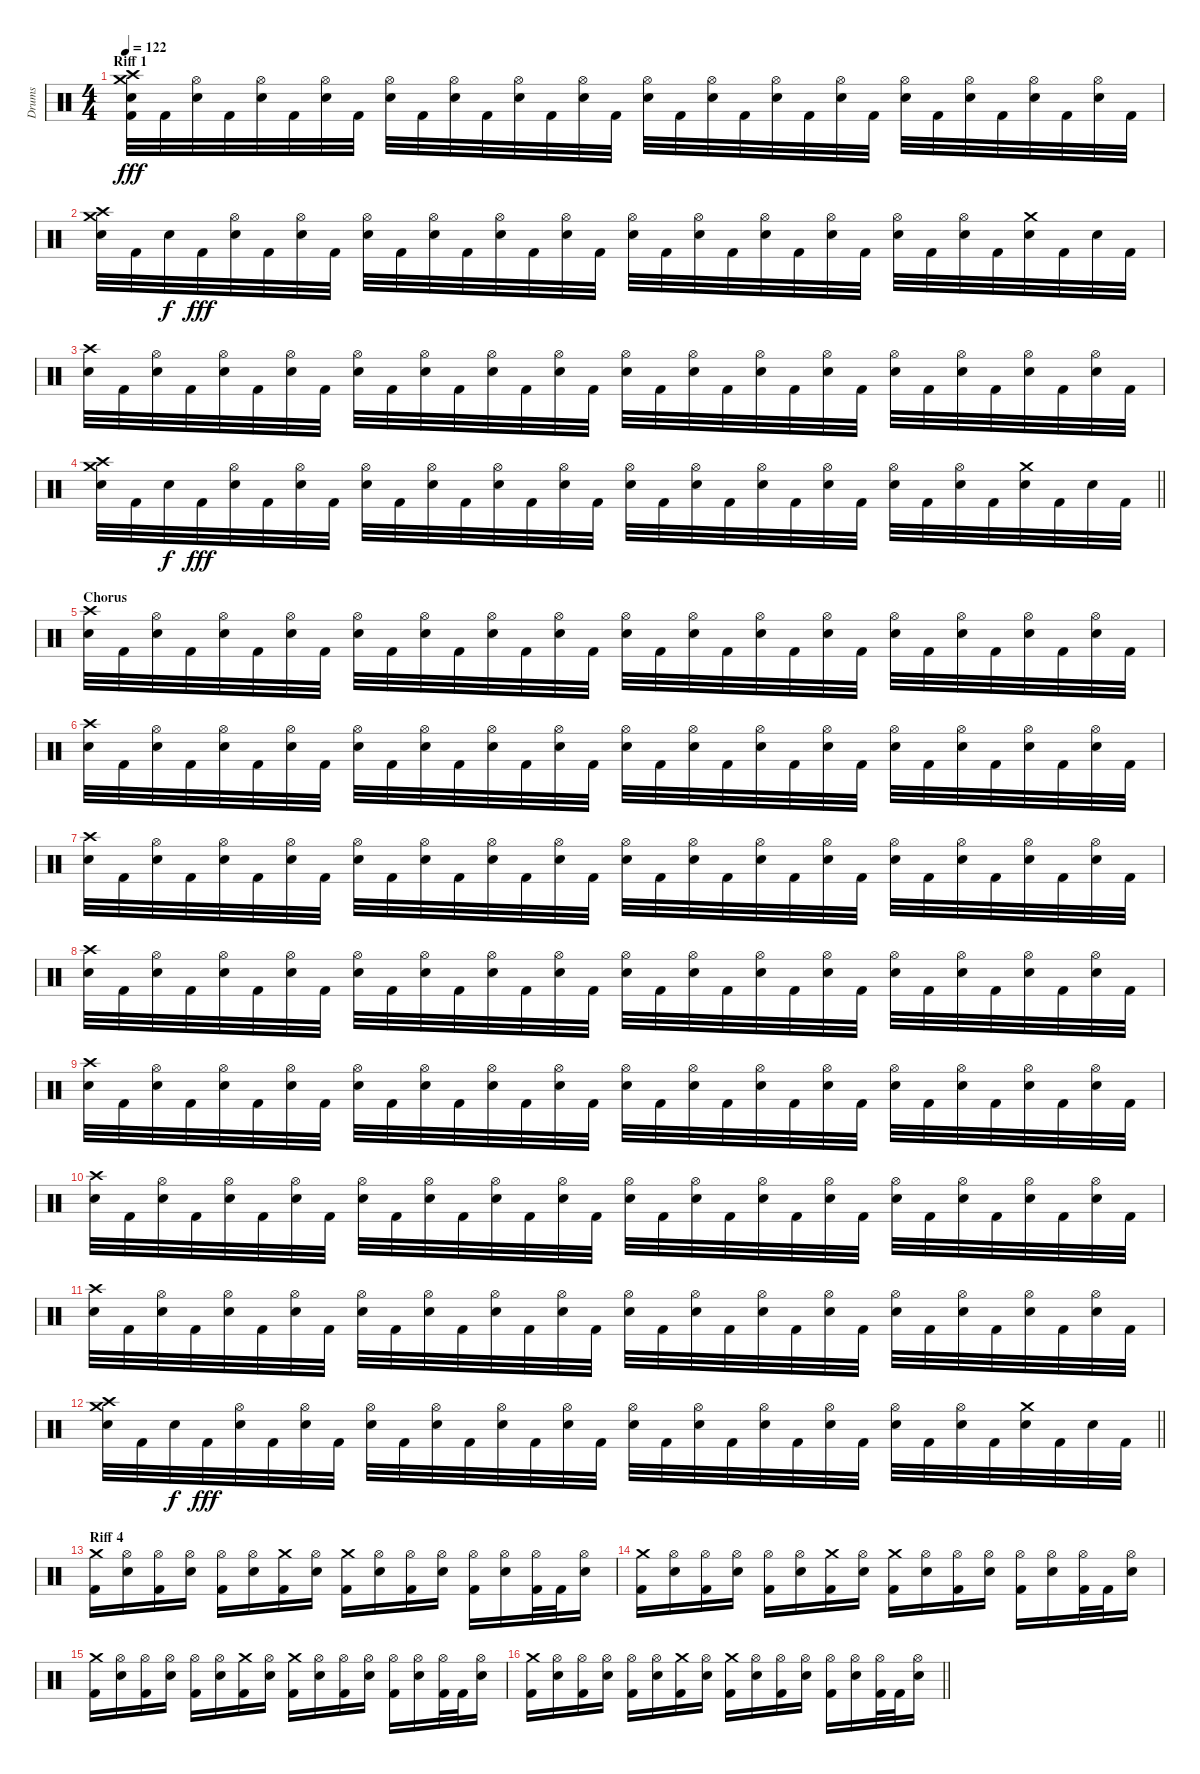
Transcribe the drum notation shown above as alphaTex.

\track ("Drums" "Drums") {instrument percussion}
\staff {score}
\articulation defaults
\ts (4 4)
\section ("" "Riff 1")
\tempo 122
\clef neutral
\ks c
("Kick (hit) 2" "Crash medium (hit)" "Snare (hit) 2" "Crash high (hit)").32{dy fff} "Kick (hit) 2".32 ("Snare (hit) 2" "Hi-Hat (open)").32 "Kick (hit) 2".32 ("Hi-Hat (open)" "Snare (hit) 2").32 "Kick (hit) 2".32 ("Snare (hit) 2" "Hi-Hat (open)").32 "Kick (hit) 2".32 ("Hi-Hat (open)" "Snare (hit) 2").32 "Kick (hit) 2".32 ("Snare (hit) 2" "Hi-Hat (open)").32 "Kick (hit) 2".32 ("Snare (hit) 2" "Hi-Hat (open)").32 "Kick (hit) 2".32 ("Hi-Hat (open)" "Snare (hit) 2").32 "Kick (hit) 2".32 ("Snare (hit) 2" "Hi-Hat (open)").32 "Kick (hit) 2".32 ("Hi-Hat (open)" "Snare (hit) 2").32 "Kick (hit) 2".32 ("Snare (hit) 2" "Hi-Hat (open)").32 "Kick (hit) 2".32 ("Snare (hit) 2" "Hi-Hat (open)").32 "Kick (hit) 2".32 ("Hi-Hat (open)" "Snare (hit) 2").32 "Kick (hit) 2".32 ("Snare (hit) 2" "Hi-Hat (open)").32 "Kick (hit) 2".32 ("Hi-Hat (open)" "Snare (hit) 2").32 "Kick (hit) 2".32 ("Snare (hit) 2" "Hi-Hat (open)").32 "Kick (hit) 2".32 |
("Snare (hit) 2" "Crash high (hit)" "Crash medium (hit)").32 "Kick (hit) 2".32 "Snare (hit) 2".32{dy f} "Kick (hit) 2".32{dy fff} ("Snare (hit) 2" "Hi-Hat (open)").32 "Kick (hit) 2".32 ("Hi-Hat (open)" "Snare (hit) 2").32 "Kick (hit) 2".32 ("Snare (hit) 2" "Hi-Hat (open)").32 "Kick (hit) 2".32 ("Snare (hit) 2" "Hi-Hat (open)").32 "Kick (hit) 2".32 ("Hi-Hat (open)" "Snare (hit) 2").32 "Kick (hit) 2".32 ("Snare (hit) 2" "Hi-Hat (open)").32 "Kick (hit) 2".32 ("Hi-Hat (open)" "Snare (hit) 2").32 "Kick (hit) 2".32 ("Snare (hit) 2" "Hi-Hat (open)").32 "Kick (hit) 2".32 ("Snare (hit) 2" "Hi-Hat (open)").32 "Kick (hit) 2".32 ("Hi-Hat (open)" "Snare (hit) 2").32 "Kick (hit) 2".32 ("Snare (hit) 2" "Hi-Hat (open)").32 "Kick (hit) 2".32 ("Hi-Hat (open)" "Snare (hit) 2").32 "Kick (hit) 2".32 ("Snare (hit) 2" "Crash medium (hit)").32 "Kick (hit) 2".32 "Snare (hit) 2".32 "Kick (hit) 2".32 |
("Snare (hit) 2" "Crash high (hit)").32 "Kick (hit) 2".32 ("Snare (hit) 2" "Hi-Hat (open)").32 "Kick (hit) 2".32 ("Hi-Hat (open)" "Snare (hit) 2").32 "Kick (hit) 2".32 ("Snare (hit) 2" "Hi-Hat (open)").32 "Kick (hit) 2".32 ("Hi-Hat (open)" "Snare (hit) 2").32 "Kick (hit) 2".32 ("Snare (hit) 2" "Hi-Hat (open)").32 "Kick (hit) 2".32 ("Snare (hit) 2" "Hi-Hat (open)").32 "Kick (hit) 2".32 ("Hi-Hat (open)" "Snare (hit) 2").32 "Kick (hit) 2".32 ("Snare (hit) 2" "Hi-Hat (open)").32 "Kick (hit) 2".32 ("Hi-Hat (open)" "Snare (hit) 2").32 "Kick (hit) 2".32 ("Snare (hit) 2" "Hi-Hat (open)").32 "Kick (hit) 2".32 ("Snare (hit) 2" "Hi-Hat (open)").32 "Kick (hit) 2".32 ("Hi-Hat (open)" "Snare (hit) 2").32 "Kick (hit) 2".32 ("Snare (hit) 2" "Hi-Hat (open)").32 "Kick (hit) 2".32 ("Hi-Hat (open)" "Snare (hit) 2").32 "Kick (hit) 2".32 ("Snare (hit) 2" "Hi-Hat (open)").32 "Kick (hit) 2".32 |
\barLineRight lightlight
("Snare (hit) 2" "Crash high (hit)" "Crash medium (hit)").32 "Kick (hit) 2".32 "Snare (hit) 2".32{dy f} "Kick (hit) 2".32{dy fff} ("Snare (hit) 2" "Hi-Hat (open)").32 "Kick (hit) 2".32 ("Hi-Hat (open)" "Snare (hit) 2").32 "Kick (hit) 2".32 ("Snare (hit) 2" "Hi-Hat (open)").32 "Kick (hit) 2".32 ("Snare (hit) 2" "Hi-Hat (open)").32 "Kick (hit) 2".32 ("Hi-Hat (open)" "Snare (hit) 2").32 "Kick (hit) 2".32 ("Snare (hit) 2" "Hi-Hat (open)").32 "Kick (hit) 2".32 ("Hi-Hat (open)" "Snare (hit) 2").32 "Kick (hit) 2".32 ("Snare (hit) 2" "Hi-Hat (open)").32 "Kick (hit) 2".32 ("Snare (hit) 2" "Hi-Hat (open)").32 "Kick (hit) 2".32 ("Hi-Hat (open)" "Snare (hit) 2").32 "Kick (hit) 2".32 ("Snare (hit) 2" "Hi-Hat (open)").32 "Kick (hit) 2".32 ("Hi-Hat (open)" "Snare (hit) 2").32 "Kick (hit) 2".32 ("Snare (hit) 2" "Crash medium (hit)").32 "Kick (hit) 2".32 "Snare (hit) 2".32 "Kick (hit) 2".32 |
\section ("" "Chorus")
("Snare (hit) 2" "Crash high (hit)").32 "Kick (hit) 2".32 ("Snare (hit) 2" "Hi-Hat (open)").32 "Kick (hit) 2".32 ("Hi-Hat (open)" "Snare (hit) 2").32 "Kick (hit) 2".32 ("Snare (hit) 2" "Hi-Hat (open)").32 "Kick (hit) 2".32 ("Hi-Hat (open)" "Snare (hit) 2").32 "Kick (hit) 2".32 ("Snare (hit) 2" "Hi-Hat (open)").32 "Kick (hit) 2".32 ("Snare (hit) 2" "Hi-Hat (open)").32 "Kick (hit) 2".32 ("Hi-Hat (open)" "Snare (hit) 2").32 "Kick (hit) 2".32 ("Snare (hit) 2" "Hi-Hat (open)").32 "Kick (hit) 2".32 ("Hi-Hat (open)" "Snare (hit) 2").32 "Kick (hit) 2".32 ("Snare (hit) 2" "Hi-Hat (open)").32 "Kick (hit) 2".32 ("Snare (hit) 2" "Hi-Hat (open)").32 "Kick (hit) 2".32 ("Hi-Hat (open)" "Snare (hit) 2").32 "Kick (hit) 2".32 ("Snare (hit) 2" "Hi-Hat (open)").32 "Kick (hit) 2".32 ("Hi-Hat (open)" "Snare (hit) 2").32 "Kick (hit) 2".32 ("Snare (hit) 2" "Hi-Hat (open)").32 "Kick (hit) 2".32 |
("Snare (hit) 2" "Crash high (hit)").32 "Kick (hit) 2".32 ("Snare (hit) 2" "Hi-Hat (open)").32 "Kick (hit) 2".32 ("Hi-Hat (open)" "Snare (hit) 2").32 "Kick (hit) 2".32 ("Snare (hit) 2" "Hi-Hat (open)").32 "Kick (hit) 2".32 ("Hi-Hat (open)" "Snare (hit) 2").32 "Kick (hit) 2".32 ("Snare (hit) 2" "Hi-Hat (open)").32 "Kick (hit) 2".32 ("Snare (hit) 2" "Hi-Hat (open)").32 "Kick (hit) 2".32 ("Hi-Hat (open)" "Snare (hit) 2").32 "Kick (hit) 2".32 ("Snare (hit) 2" "Hi-Hat (open)").32 "Kick (hit) 2".32 ("Hi-Hat (open)" "Snare (hit) 2").32 "Kick (hit) 2".32 ("Snare (hit) 2" "Hi-Hat (open)").32 "Kick (hit) 2".32 ("Snare (hit) 2" "Hi-Hat (open)").32 "Kick (hit) 2".32 ("Hi-Hat (open)" "Snare (hit) 2").32 "Kick (hit) 2".32 ("Snare (hit) 2" "Hi-Hat (open)").32 "Kick (hit) 2".32 ("Hi-Hat (open)" "Snare (hit) 2").32 "Kick (hit) 2".32 ("Snare (hit) 2" "Hi-Hat (open)").32 "Kick (hit) 2".32 |
("Snare (hit) 2" "Crash high (hit)").32 "Kick (hit) 2".32 ("Snare (hit) 2" "Hi-Hat (open)").32 "Kick (hit) 2".32 ("Hi-Hat (open)" "Snare (hit) 2").32 "Kick (hit) 2".32 ("Snare (hit) 2" "Hi-Hat (open)").32 "Kick (hit) 2".32 ("Hi-Hat (open)" "Snare (hit) 2").32 "Kick (hit) 2".32 ("Snare (hit) 2" "Hi-Hat (open)").32 "Kick (hit) 2".32 ("Snare (hit) 2" "Hi-Hat (open)").32 "Kick (hit) 2".32 ("Hi-Hat (open)" "Snare (hit) 2").32 "Kick (hit) 2".32 ("Snare (hit) 2" "Hi-Hat (open)").32 "Kick (hit) 2".32 ("Hi-Hat (open)" "Snare (hit) 2").32 "Kick (hit) 2".32 ("Snare (hit) 2" "Hi-Hat (open)").32 "Kick (hit) 2".32 ("Snare (hit) 2" "Hi-Hat (open)").32 "Kick (hit) 2".32 ("Hi-Hat (open)" "Snare (hit) 2").32 "Kick (hit) 2".32 ("Snare (hit) 2" "Hi-Hat (open)").32 "Kick (hit) 2".32 ("Hi-Hat (open)" "Snare (hit) 2").32 "Kick (hit) 2".32 ("Snare (hit) 2" "Hi-Hat (open)").32 "Kick (hit) 2".32 |
("Snare (hit) 2" "Crash high (hit)").32 "Kick (hit) 2".32 ("Snare (hit) 2" "Hi-Hat (open)").32 "Kick (hit) 2".32 ("Hi-Hat (open)" "Snare (hit) 2").32 "Kick (hit) 2".32 ("Snare (hit) 2" "Hi-Hat (open)").32 "Kick (hit) 2".32 ("Hi-Hat (open)" "Snare (hit) 2").32 "Kick (hit) 2".32 ("Snare (hit) 2" "Hi-Hat (open)").32 "Kick (hit) 2".32 ("Snare (hit) 2" "Hi-Hat (open)").32 "Kick (hit) 2".32 ("Hi-Hat (open)" "Snare (hit) 2").32 "Kick (hit) 2".32 ("Snare (hit) 2" "Hi-Hat (open)").32 "Kick (hit) 2".32 ("Hi-Hat (open)" "Snare (hit) 2").32 "Kick (hit) 2".32 ("Snare (hit) 2" "Hi-Hat (open)").32 "Kick (hit) 2".32 ("Snare (hit) 2" "Hi-Hat (open)").32 "Kick (hit) 2".32 ("Hi-Hat (open)" "Snare (hit) 2").32 "Kick (hit) 2".32 ("Snare (hit) 2" "Hi-Hat (open)").32 "Kick (hit) 2".32 ("Hi-Hat (open)" "Snare (hit) 2").32 "Kick (hit) 2".32 ("Snare (hit) 2" "Hi-Hat (open)").32 "Kick (hit) 2".32 |
("Snare (hit) 2" "Crash high (hit)").32 "Kick (hit) 2".32 ("Snare (hit) 2" "Hi-Hat (open)").32 "Kick (hit) 2".32 ("Hi-Hat (open)" "Snare (hit) 2").32 "Kick (hit) 2".32 ("Snare (hit) 2" "Hi-Hat (open)").32 "Kick (hit) 2".32 ("Hi-Hat (open)" "Snare (hit) 2").32 "Kick (hit) 2".32 ("Snare (hit) 2" "Hi-Hat (open)").32 "Kick (hit) 2".32 ("Snare (hit) 2" "Hi-Hat (open)").32 "Kick (hit) 2".32 ("Hi-Hat (open)" "Snare (hit) 2").32 "Kick (hit) 2".32 ("Snare (hit) 2" "Hi-Hat (open)").32 "Kick (hit) 2".32 ("Hi-Hat (open)" "Snare (hit) 2").32 "Kick (hit) 2".32 ("Snare (hit) 2" "Hi-Hat (open)").32 "Kick (hit) 2".32 ("Snare (hit) 2" "Hi-Hat (open)").32 "Kick (hit) 2".32 ("Hi-Hat (open)" "Snare (hit) 2").32 "Kick (hit) 2".32 ("Snare (hit) 2" "Hi-Hat (open)").32 "Kick (hit) 2".32 ("Hi-Hat (open)" "Snare (hit) 2").32 "Kick (hit) 2".32 ("Snare (hit) 2" "Hi-Hat (open)").32 "Kick (hit) 2".32 |
("Snare (hit) 2" "Crash high (hit)").32 "Kick (hit) 2".32 ("Snare (hit) 2" "Hi-Hat (open)").32 "Kick (hit) 2".32 ("Hi-Hat (open)" "Snare (hit) 2").32 "Kick (hit) 2".32 ("Snare (hit) 2" "Hi-Hat (open)").32 "Kick (hit) 2".32 ("Hi-Hat (open)" "Snare (hit) 2").32 "Kick (hit) 2".32 ("Snare (hit) 2" "Hi-Hat (open)").32 "Kick (hit) 2".32 ("Snare (hit) 2" "Hi-Hat (open)").32 "Kick (hit) 2".32 ("Hi-Hat (open)" "Snare (hit) 2").32 "Kick (hit) 2".32 ("Snare (hit) 2" "Hi-Hat (open)").32 "Kick (hit) 2".32 ("Hi-Hat (open)" "Snare (hit) 2").32 "Kick (hit) 2".32 ("Snare (hit) 2" "Hi-Hat (open)").32 "Kick (hit) 2".32 ("Snare (hit) 2" "Hi-Hat (open)").32 "Kick (hit) 2".32 ("Hi-Hat (open)" "Snare (hit) 2").32 "Kick (hit) 2".32 ("Snare (hit) 2" "Hi-Hat (open)").32 "Kick (hit) 2".32 ("Hi-Hat (open)" "Snare (hit) 2").32 "Kick (hit) 2".32 ("Snare (hit) 2" "Hi-Hat (open)").32 "Kick (hit) 2".32 |
("Snare (hit) 2" "Crash high (hit)").32 "Kick (hit) 2".32 ("Snare (hit) 2" "Hi-Hat (open)").32 "Kick (hit) 2".32 ("Hi-Hat (open)" "Snare (hit) 2").32 "Kick (hit) 2".32 ("Snare (hit) 2" "Hi-Hat (open)").32 "Kick (hit) 2".32 ("Hi-Hat (open)" "Snare (hit) 2").32 "Kick (hit) 2".32 ("Snare (hit) 2" "Hi-Hat (open)").32 "Kick (hit) 2".32 ("Snare (hit) 2" "Hi-Hat (open)").32 "Kick (hit) 2".32 ("Hi-Hat (open)" "Snare (hit) 2").32 "Kick (hit) 2".32 ("Snare (hit) 2" "Hi-Hat (open)").32 "Kick (hit) 2".32 ("Hi-Hat (open)" "Snare (hit) 2").32 "Kick (hit) 2".32 ("Snare (hit) 2" "Hi-Hat (open)").32 "Kick (hit) 2".32 ("Snare (hit) 2" "Hi-Hat (open)").32 "Kick (hit) 2".32 ("Hi-Hat (open)" "Snare (hit) 2").32 "Kick (hit) 2".32 ("Snare (hit) 2" "Hi-Hat (open)").32 "Kick (hit) 2".32 ("Hi-Hat (open)" "Snare (hit) 2").32 "Kick (hit) 2".32 ("Snare (hit) 2" "Hi-Hat (open)").32 "Kick (hit) 2".32 |
\barLineRight lightlight
("Snare (hit) 2" "Crash high (hit)" "Crash medium (hit)").32 "Kick (hit) 2".32 "Snare (hit) 2".32{dy f} "Kick (hit) 2".32{dy fff} ("Snare (hit) 2" "Hi-Hat (open)").32 "Kick (hit) 2".32 ("Hi-Hat (open)" "Snare (hit) 2").32 "Kick (hit) 2".32 ("Snare (hit) 2" "Hi-Hat (open)").32 "Kick (hit) 2".32 ("Snare (hit) 2" "Hi-Hat (open)").32 "Kick (hit) 2".32 ("Hi-Hat (open)" "Snare (hit) 2").32 "Kick (hit) 2".32 ("Snare (hit) 2" "Hi-Hat (open)").32 "Kick (hit) 2".32 ("Hi-Hat (open)" "Snare (hit) 2").32 "Kick (hit) 2".32 ("Snare (hit) 2" "Hi-Hat (open)").32 "Kick (hit) 2".32 ("Snare (hit) 2" "Hi-Hat (open)").32 "Kick (hit) 2".32 ("Hi-Hat (open)" "Snare (hit) 2").32 "Kick (hit) 2".32 ("Snare (hit) 2" "Hi-Hat (open)").32 "Kick (hit) 2".32 ("Hi-Hat (open)" "Snare (hit) 2").32 "Kick (hit) 2".32 ("Snare (hit) 2" "Crash medium (hit)").32 "Kick (hit) 2".32 "Snare (hit) 2".32 "Kick (hit) 2".32 |
\section ("" "Riff 4")
("Kick (hit) 2" "Crash medium (hit)").16 ("Snare (hit) 2" "Hi-Hat (open)").16 ("Kick (hit) 2" "Hi-Hat (open)").16 ("Snare (hit) 2" "Hi-Hat (open)").16 ("Kick (hit) 2" "Hi-Hat (open)").16 ("Snare (hit) 2" "Hi-Hat (open)").16 ("Kick (hit) 2" "Crash medium (hit)").16 ("Snare (hit) 2" "Hi-Hat (open)").16 ("Kick (hit) 2" "Crash medium (hit)").16 ("Snare (hit) 2" "Hi-Hat (open)").16 ("Kick (hit) 2" "Hi-Hat (open)").16 ("Snare (hit) 2" "Hi-Hat (open)").16 ("Kick (hit) 2" "Hi-Hat (open)").16 ("Snare (hit) 2" "Hi-Hat (open)").16 ("Kick (hit) 2" "Hi-Hat (open)").32 "Kick (hit) 2".32 ("Snare (hit) 2" "Hi-Hat (open)").16 |
("Kick (hit) 2" "Crash medium (hit)").16 ("Snare (hit) 2" "Hi-Hat (open)").16 ("Kick (hit) 2" "Hi-Hat (open)").16 ("Snare (hit) 2" "Hi-Hat (open)").16 ("Kick (hit) 2" "Hi-Hat (open)").16 ("Snare (hit) 2" "Hi-Hat (open)").16 ("Kick (hit) 2" "Crash medium (hit)").16 ("Snare (hit) 2" "Hi-Hat (open)").16 ("Kick (hit) 2" "Crash medium (hit)").16 ("Snare (hit) 2" "Hi-Hat (open)").16 ("Kick (hit) 2" "Hi-Hat (open)").16 ("Snare (hit) 2" "Hi-Hat (open)").16 ("Kick (hit) 2" "Hi-Hat (open)").16 ("Snare (hit) 2" "Hi-Hat (open)").16 ("Kick (hit) 2" "Hi-Hat (open)").32 "Kick (hit) 2".32 ("Snare (hit) 2" "Hi-Hat (open)").16 |
("Kick (hit) 2" "Crash medium (hit)").16 ("Snare (hit) 2" "Hi-Hat (open)").16 ("Kick (hit) 2" "Hi-Hat (open)").16 ("Snare (hit) 2" "Hi-Hat (open)").16 ("Kick (hit) 2" "Hi-Hat (open)").16 ("Snare (hit) 2" "Hi-Hat (open)").16 ("Kick (hit) 2" "Crash medium (hit)").16 ("Snare (hit) 2" "Hi-Hat (open)").16 ("Kick (hit) 2" "Crash medium (hit)").16 ("Snare (hit) 2" "Hi-Hat (open)").16 ("Kick (hit) 2" "Hi-Hat (open)").16 ("Snare (hit) 2" "Hi-Hat (open)").16 ("Kick (hit) 2" "Hi-Hat (open)").16 ("Snare (hit) 2" "Hi-Hat (open)").16 ("Kick (hit) 2" "Hi-Hat (open)").32 "Kick (hit) 2".32 ("Snare (hit) 2" "Hi-Hat (open)").16 |
\barLineRight lightlight
("Kick (hit) 2" "Crash medium (hit)").16 ("Snare (hit) 2" "Hi-Hat (open)").16 ("Kick (hit) 2" "Hi-Hat (open)").16 ("Snare (hit) 2" "Hi-Hat (open)").16 ("Kick (hit) 2" "Hi-Hat (open)").16 ("Snare (hit) 2" "Hi-Hat (open)").16 ("Kick (hit) 2" "Crash medium (hit)").16 ("Snare (hit) 2" "Hi-Hat (open)").16 ("Kick (hit) 2" "Crash medium (hit)").16 ("Snare (hit) 2" "Hi-Hat (open)").16 ("Kick (hit) 2" "Hi-Hat (open)").16 ("Snare (hit) 2" "Hi-Hat (open)").16 ("Kick (hit) 2" "Hi-Hat (open)").16 ("Snare (hit) 2" "Hi-Hat (open)").16 ("Kick (hit) 2" "Hi-Hat (open)").32 "Kick (hit) 2".32 ("Snare (hit) 2" "Hi-Hat (open)").16
